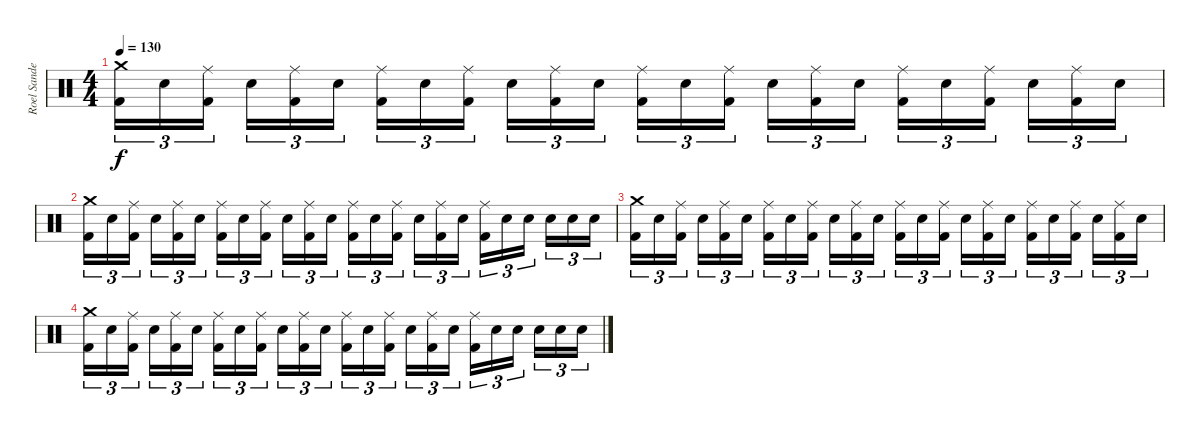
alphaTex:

\track ("Roel Sander " "Roel Sande") {instrument percussion}
\staff {score}
\articulation defaults
\ts (4 4)
\tempo 130
\clef neutral
\ks c
("Crash medium (hit)" "Kick (hit) 2").16{tu (3 2) dy f volume 5} "Snare (hit) 2".16{tu (3 2)} ("Ride (middle)" "Kick (hit) 2").16{tu (3 2) beam splitsecondary} "Snare (hit) 2".16{tu (3 2)} ("Ride (middle)" "Kick (hit) 2").16{tu (3 2)} "Snare (hit) 2".16{tu (3 2)} ("Ride (middle)" "Kick (hit) 2").16{tu (3 2)} "Snare (hit) 2".16{tu (3 2)} ("Ride (middle)" "Kick (hit) 2").16{tu (3 2) beam splitsecondary} "Snare (hit) 2".16{tu (3 2)} ("Ride (middle)" "Kick (hit) 2").16{tu (3 2)} "Snare (hit) 2".16{tu (3 2)} ("Ride (middle)" "Kick (hit) 2").16{tu (3 2)} "Snare (hit) 2".16{tu (3 2)} ("Ride (middle)" "Kick (hit) 2").16{tu (3 2) beam splitsecondary} "Snare (hit) 2".16{tu (3 2)} ("Ride (middle)" "Kick (hit) 2").16{tu (3 2)} "Snare (hit) 2".16{tu (3 2)} ("Ride (middle)" "Kick (hit) 2").16{tu (3 2)} "Snare (hit) 2".16{tu (3 2)} ("Ride (middle)" "Kick (hit) 2").16{tu (3 2) beam splitsecondary} "Snare (hit) 2".16{tu (3 2)} ("Ride (middle)" "Kick (hit) 2").16{tu (3 2)} "Snare (hit) 2".16{tu (3 2)} |
("Crash medium (hit)" "Kick (hit) 2").16{tu (3 2) volume 4} "Snare (hit) 2".16{tu (3 2)} ("Ride (middle)" "Kick (hit) 2").16{tu (3 2) beam splitsecondary} "Snare (hit) 2".16{tu (3 2)} ("Ride (middle)" "Kick (hit) 2").16{tu (3 2)} "Snare (hit) 2".16{tu (3 2)} ("Ride (middle)" "Kick (hit) 2").16{tu (3 2)} "Snare (hit) 2".16{tu (3 2)} ("Ride (middle)" "Kick (hit) 2").16{tu (3 2) beam splitsecondary} "Snare (hit) 2".16{tu (3 2)} ("Ride (middle)" "Kick (hit) 2").16{tu (3 2)} "Snare (hit) 2".16{tu (3 2)} ("Ride (middle)" "Kick (hit) 2").16{tu (3 2)} "Snare (hit) 2".16{tu (3 2)} ("Ride (middle)" "Kick (hit) 2").16{tu (3 2) beam splitsecondary} "Snare (hit) 2".16{tu (3 2)} ("Ride (middle)" "Kick (hit) 2").16{tu (3 2)} "Snare (hit) 2".16{tu (3 2)} ("Ride (middle)" "Kick (hit) 2").16{tu (3 2)} "Snare (hit) 2".16{tu (3 2)} "Snare (hit) 2".16{tu (3 2) beam splitsecondary} "Snare (hit) 2".16{tu (3 2)} "Snare (hit) 2".16{tu (3 2)} "Snare (hit) 2".16{tu (3 2)} |
("Crash medium (hit)" "Kick (hit) 2").16{tu (3 2) volume 1} "Snare (hit) 2".16{tu (3 2)} ("Ride (middle)" "Kick (hit) 2").16{tu (3 2) beam splitsecondary} "Snare (hit) 2".16{tu (3 2)} ("Ride (middle)" "Kick (hit) 2").16{tu (3 2)} "Snare (hit) 2".16{tu (3 2)} ("Ride (middle)" "Kick (hit) 2").16{tu (3 2)} "Snare (hit) 2".16{tu (3 2)} ("Ride (middle)" "Kick (hit) 2").16{tu (3 2) beam splitsecondary} "Snare (hit) 2".16{tu (3 2)} ("Ride (middle)" "Kick (hit) 2").16{tu (3 2)} "Snare (hit) 2".16{tu (3 2)} ("Ride (middle)" "Kick (hit) 2").16{tu (3 2)} "Snare (hit) 2".16{tu (3 2)} ("Ride (middle)" "Kick (hit) 2").16{tu (3 2) beam splitsecondary} "Snare (hit) 2".16{tu (3 2)} ("Ride (middle)" "Kick (hit) 2").16{tu (3 2)} "Snare (hit) 2".16{tu (3 2)} ("Ride (middle)" "Kick (hit) 2").16{tu (3 2)} "Snare (hit) 2".16{tu (3 2)} ("Ride (middle)" "Kick (hit) 2").16{tu (3 2) beam splitsecondary} "Snare (hit) 2".16{tu (3 2)} ("Ride (middle)" "Kick (hit) 2").16{tu (3 2)} "Snare (hit) 2".16{tu (3 2)} |
("Crash medium (hit)" "Kick (hit) 2").16{tu (3 2) volume 0} "Snare (hit) 2".16{tu (3 2)} ("Ride (middle)" "Kick (hit) 2").16{tu (3 2) beam splitsecondary} "Snare (hit) 2".16{tu (3 2)} ("Ride (middle)" "Kick (hit) 2").16{tu (3 2)} "Snare (hit) 2".16{tu (3 2)} ("Ride (middle)" "Kick (hit) 2").16{tu (3 2)} "Snare (hit) 2".16{tu (3 2)} ("Ride (middle)" "Kick (hit) 2").16{tu (3 2) beam splitsecondary} "Snare (hit) 2".16{tu (3 2)} ("Ride (middle)" "Kick (hit) 2").16{tu (3 2)} "Snare (hit) 2".16{tu (3 2)} ("Ride (middle)" "Kick (hit) 2").16{tu (3 2)} "Snare (hit) 2".16{tu (3 2)} ("Ride (middle)" "Kick (hit) 2").16{tu (3 2) beam splitsecondary} "Snare (hit) 2".16{tu (3 2)} ("Ride (middle)" "Kick (hit) 2").16{tu (3 2)} "Snare (hit) 2".16{tu (3 2)} ("Ride (middle)" "Kick (hit) 2").16{tu (3 2)} "Snare (hit) 2".16{tu (3 2)} "Snare (hit) 2".16{tu (3 2) beam splitsecondary} "Snare (hit) 2".16{tu (3 2)} "Snare (hit) 2".16{tu (3 2)} "Snare (hit) 2".16{tu (3 2)}
